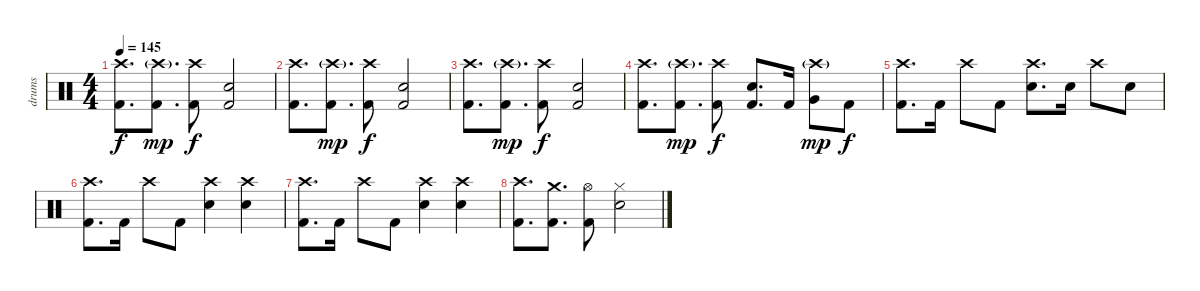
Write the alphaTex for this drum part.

\track ("drums" "drums") {instrument percussion}
\staff {score}
\articulation defaults
\ts (4 4)
\tempo 145
\clef neutral
\ks c
("Crash high (hit)" "Kick (hit) 2").8{d dy f} ("Crash high (hit)"{g} "Kick (hit) 2").8{d dy mp} ("Crash high (hit)" "Kick (hit) 2").8{dy f} ("Snare (hit) 2" "Kick (hit) 2").2 |
("Crash high (hit)" "Kick (hit) 2").8{d} ("Crash high (hit)"{g} "Kick (hit) 2").8{d dy mp} ("Crash high (hit)" "Kick (hit) 2").8{dy f} ("Snare (hit) 2" "Kick (hit) 2").2 |
("Crash high (hit)" "Kick (hit) 2").8{d} ("Crash high (hit)"{g} "Kick (hit) 2").8{d dy mp} ("Crash high (hit)" "Kick (hit) 2").8{dy f} ("Snare (hit) 2" "Kick (hit) 2").2 |
("Crash high (hit)" "Kick (hit) 2").8{d} ("Crash high (hit)"{g} "Kick (hit) 2").8{d dy mp} ("Crash high (hit)" "Kick (hit) 2").8{dy f} ("Snare (hit) 2" "Kick (hit) 2").8{d} "Kick (hit) 2".16 ("Crash high (hit)"{g} "Very Low Tom (hit)").8{dy mp} "Kick (hit) 2".8{dy f} |
("Crash high (hit)" "Kick (hit) 2").8{d} "Kick (hit) 2".16 "Crash high (hit)".8 "Kick (hit) 2".8 ("Crash high (hit)" "Snare (hit) 2").8{d} "Snare (hit) 2".16 "Crash high (hit)".8 "Snare (hit) 2".8 |
("Crash high (hit)" "Kick (hit) 2").8{d} "Kick (hit) 2".16 "Crash high (hit)".8 "Kick (hit) 2".8 ("Crash high (hit)" "Snare (hit) 2").4 ("Crash high (hit)" "Snare (hit) 2").4 |
("Crash high (hit)" "Kick (hit) 2").8{d} "Kick (hit) 2".16 "Crash high (hit)".8 "Kick (hit) 2".8 ("Crash high (hit)" "Snare (hit) 2").4 ("Crash high (hit)" "Snare (hit) 2").4 |
("Crash high (hit)" "Kick (hit) 2").8{d} ("Crash medium (hit)" "Kick (hit) 2").8{d} ("Hi-Hat (open)" "Kick (hit) 2").8 ("Hi-Hat (closed)" "Snare (hit) 2").2
